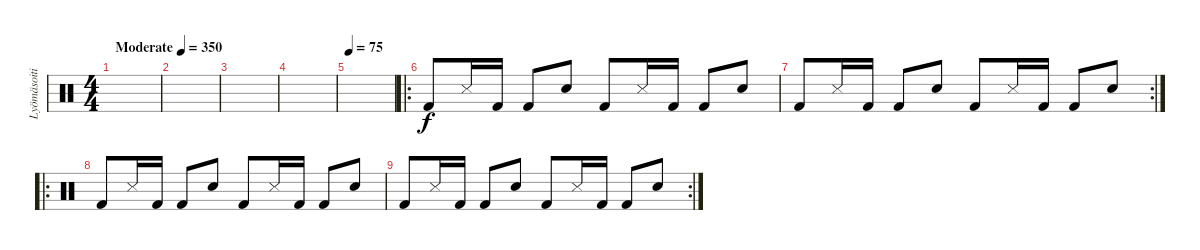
\track ("Lyömäsoitin" "Lyömäsoiti") {instrument percussion}
\staff {score}
\articulation defaults
\ts (4 4)
\tempo (350 "Moderate")
\clef neutral
\ks c
|
|
|
|
\tempo 75
|
\ro "Kick (hit) 2".8 "Snare (side stick) 3".16 "Kick (hit) 2".16 "Kick (hit) 2".8 "Hand Clap (hit)".8 "Kick (hit) 2".8 "Snare (side stick) 3".16 "Kick (hit) 2".16 "Kick (hit) 2".8 "Hand Clap (hit)".8
|
\rc 2 "Kick (hit) 2".8 "Snare (side stick) 3".16 "Kick (hit) 2".16 "Kick (hit) 2".8 "Hand Clap (hit)".8 "Kick (hit) 2".8 "Snare (side stick) 3".16 "Kick (hit) 2".16 "Kick (hit) 2".8 "Hand Clap (hit)".8
|
\ro "Kick (hit) 2".8 "Snare (side stick) 3".16 "Kick (hit) 2".16 "Kick (hit) 2".8 "Hand Clap (hit)".8 "Kick (hit) 2".8 "Snare (side stick) 3".16 "Kick (hit) 2".16 "Kick (hit) 2".8 "Hand Clap (hit)".8
|
\rc 2 "Kick (hit) 2".8 "Snare (side stick) 3".16 "Kick (hit) 2".16 "Kick (hit) 2".8 "Hand Clap (hit)".8 "Kick (hit) 2".8 "Snare (side stick) 3".16 "Kick (hit) 2".16 "Kick (hit) 2".8 "Hand Clap (hit)".8
